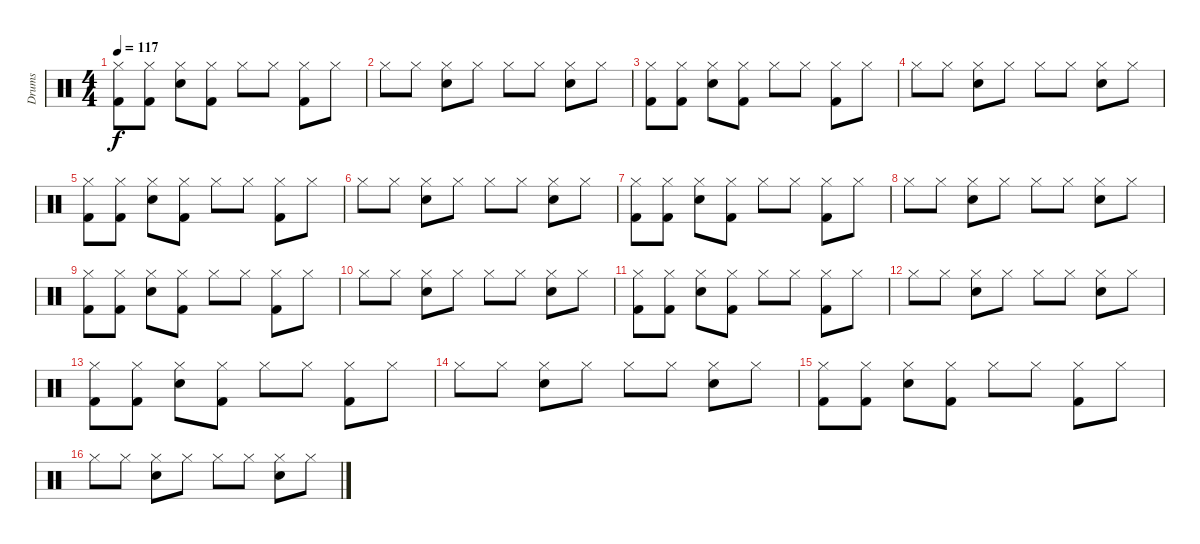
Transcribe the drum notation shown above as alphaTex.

\track ("Drums" "Drums") {instrument percussion}
\staff {score}
\articulation defaults
\ts (4 4)
\tempo 117
\clef neutral
\ks c
("Hi-Hat (closed)" "Kick (hit) 2").8{dy f} ("Hi-Hat (closed)" "Kick (hit) 2").8 ("Hi-Hat (closed)" "Snare (hit) 2").8 ("Hi-Hat (closed)" "Kick (hit) 2").8 "Hi-Hat (closed)".8 "Hi-Hat (closed)".8 ("Hi-Hat (closed)" "Kick (hit) 2").8 "Hi-Hat (closed)".8 |
"Hi-Hat (closed)".8 "Hi-Hat (closed)".8 ("Hi-Hat (closed)" "Snare (hit) 2").8 "Hi-Hat (closed)".8 "Hi-Hat (closed)".8 "Hi-Hat (closed)".8 ("Hi-Hat (closed)" "Snare (hit) 2").8 "Hi-Hat (closed)".8 |
("Hi-Hat (closed)" "Kick (hit) 2").8 ("Hi-Hat (closed)" "Kick (hit) 2").8 ("Hi-Hat (closed)" "Snare (hit) 2").8 ("Hi-Hat (closed)" "Kick (hit) 2").8 "Hi-Hat (closed)".8 "Hi-Hat (closed)".8 ("Hi-Hat (closed)" "Kick (hit) 2").8 "Hi-Hat (closed)".8 |
"Hi-Hat (closed)".8 "Hi-Hat (closed)".8 ("Hi-Hat (closed)" "Snare (hit) 2").8 "Hi-Hat (closed)".8 "Hi-Hat (closed)".8 "Hi-Hat (closed)".8 ("Hi-Hat (closed)" "Snare (hit) 2").8 "Hi-Hat (closed)".8 |
("Hi-Hat (closed)" "Kick (hit) 2").8 ("Hi-Hat (closed)" "Kick (hit) 2").8 ("Hi-Hat (closed)" "Snare (hit) 2").8 ("Hi-Hat (closed)" "Kick (hit) 2").8 "Hi-Hat (closed)".8 "Hi-Hat (closed)".8 ("Hi-Hat (closed)" "Kick (hit) 2").8 "Hi-Hat (closed)".8 |
"Hi-Hat (closed)".8 "Hi-Hat (closed)".8 ("Hi-Hat (closed)" "Snare (hit) 2").8 "Hi-Hat (closed)".8 "Hi-Hat (closed)".8 "Hi-Hat (closed)".8 ("Hi-Hat (closed)" "Snare (hit) 2").8 "Hi-Hat (closed)".8 |
("Hi-Hat (closed)" "Kick (hit) 2").8 ("Hi-Hat (closed)" "Kick (hit) 2").8 ("Hi-Hat (closed)" "Snare (hit) 2").8 ("Hi-Hat (closed)" "Kick (hit) 2").8 "Hi-Hat (closed)".8 "Hi-Hat (closed)".8 ("Hi-Hat (closed)" "Kick (hit) 2").8 "Hi-Hat (closed)".8 |
"Hi-Hat (closed)".8 "Hi-Hat (closed)".8 ("Hi-Hat (closed)" "Snare (hit) 2").8 "Hi-Hat (closed)".8 "Hi-Hat (closed)".8 "Hi-Hat (closed)".8 ("Hi-Hat (closed)" "Snare (hit) 2").8 "Hi-Hat (closed)".8 |
("Hi-Hat (closed)" "Kick (hit) 2").8 ("Hi-Hat (closed)" "Kick (hit) 2").8 ("Hi-Hat (closed)" "Snare (hit) 2").8 ("Hi-Hat (closed)" "Kick (hit) 2").8 "Hi-Hat (closed)".8 "Hi-Hat (closed)".8 ("Hi-Hat (closed)" "Kick (hit) 2").8 "Hi-Hat (closed)".8 |
"Hi-Hat (closed)".8 "Hi-Hat (closed)".8 ("Hi-Hat (closed)" "Snare (hit) 2").8 "Hi-Hat (closed)".8 "Hi-Hat (closed)".8 "Hi-Hat (closed)".8 ("Hi-Hat (closed)" "Snare (hit) 2").8 "Hi-Hat (closed)".8 |
("Hi-Hat (closed)" "Kick (hit) 2").8 ("Hi-Hat (closed)" "Kick (hit) 2").8 ("Hi-Hat (closed)" "Snare (hit) 2").8 ("Hi-Hat (closed)" "Kick (hit) 2").8 "Hi-Hat (closed)".8 "Hi-Hat (closed)".8 ("Hi-Hat (closed)" "Kick (hit) 2").8 "Hi-Hat (closed)".8 |
"Hi-Hat (closed)".8 "Hi-Hat (closed)".8 ("Hi-Hat (closed)" "Snare (hit) 2").8 "Hi-Hat (closed)".8 "Hi-Hat (closed)".8 "Hi-Hat (closed)".8 ("Hi-Hat (closed)" "Snare (hit) 2").8 "Hi-Hat (closed)".8 |
("Hi-Hat (closed)" "Kick (hit) 2").8 ("Hi-Hat (closed)" "Kick (hit) 2").8 ("Hi-Hat (closed)" "Snare (hit) 2").8 ("Hi-Hat (closed)" "Kick (hit) 2").8 "Hi-Hat (closed)".8 "Hi-Hat (closed)".8 ("Hi-Hat (closed)" "Kick (hit) 2").8 "Hi-Hat (closed)".8 |
"Hi-Hat (closed)".8 "Hi-Hat (closed)".8 ("Hi-Hat (closed)" "Snare (hit) 2").8 "Hi-Hat (closed)".8 "Hi-Hat (closed)".8 "Hi-Hat (closed)".8 ("Hi-Hat (closed)" "Snare (hit) 2").8 "Hi-Hat (closed)".8 |
("Hi-Hat (closed)" "Kick (hit) 2").8 ("Hi-Hat (closed)" "Kick (hit) 2").8 ("Hi-Hat (closed)" "Snare (hit) 2").8 ("Hi-Hat (closed)" "Kick (hit) 2").8 "Hi-Hat (closed)".8 "Hi-Hat (closed)".8 ("Hi-Hat (closed)" "Kick (hit) 2").8 "Hi-Hat (closed)".8 |
"Hi-Hat (closed)".8 "Hi-Hat (closed)".8 ("Hi-Hat (closed)" "Snare (hit) 2").8 "Hi-Hat (closed)".8 "Hi-Hat (closed)".8 "Hi-Hat (closed)".8 ("Hi-Hat (closed)" "Snare (hit) 2").8 "Hi-Hat (closed)".8
